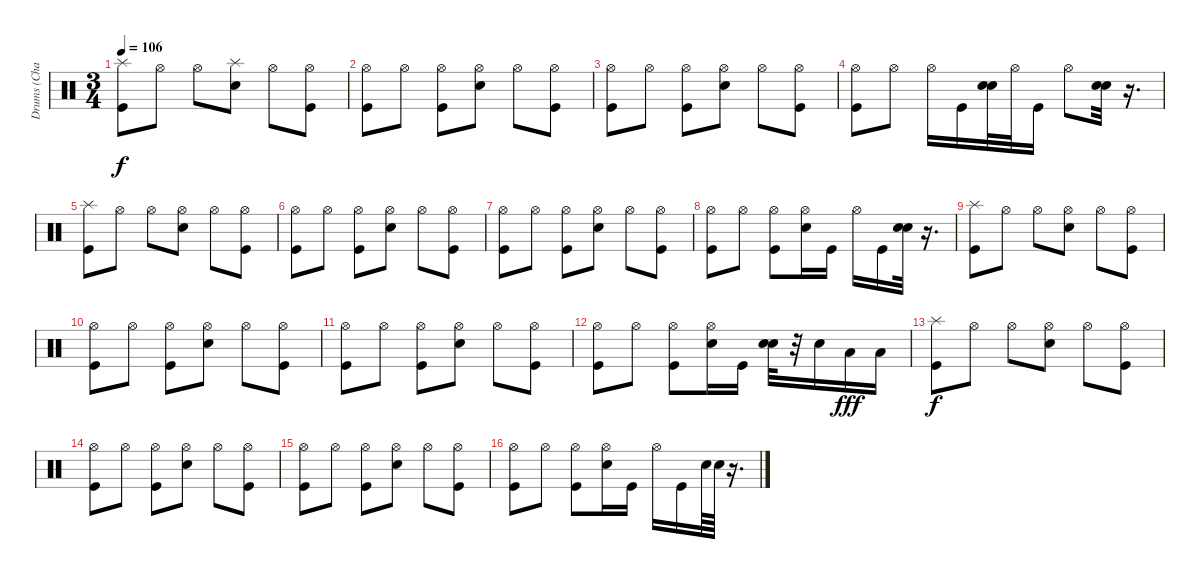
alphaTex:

\track ("Drums (Chad?)" "Drums (Cha") {instrument percussion}
\staff {score}
\articulation defaults
\ts (3 4)
\tempo 106
\clef neutral
\ks c
("Splash (hit)" "Kick (hit)").8{dy f} "Hi-Hat (open)".8 "Hi-Hat (open)".8 ("Splash (hit)" "Snare (hit) 2").8 "Hi-Hat (open)".8 ("Hi-Hat (open)" "Kick (hit)").8 |
("Hi-Hat (open)" "Kick (hit)").8 "Hi-Hat (open)".8 ("Hi-Hat (open)" "Kick (hit)").8 ("Hi-Hat (open)" "Snare (hit) 2").8 "Hi-Hat (open)".8 ("Hi-Hat (open)" "Kick (hit)").8 |
("Hi-Hat (open)" "Kick (hit)").8 "Hi-Hat (open)".8 ("Hi-Hat (open)" "Kick (hit)").8 ("Hi-Hat (open)" "Snare (hit) 2").8 "Hi-Hat (open)".8 ("Hi-Hat (open)" "Kick (hit)").8 |
("Hi-Hat (open)" "Kick (hit)").8 "Hi-Hat (open)".8 "Hi-Hat (open)".16 "Kick (hit)".16 ("Snare (hit) 2" "Snare (hit) 2").32 "Hi-Hat (open)".32 "Kick (hit)".16 "Hi-Hat (open)".8 ("Snare (hit) 2" "Snare (hit) 2").32 r.16{d} |
("Splash (hit)" "Kick (hit)").8 "Hi-Hat (open)".8 "Hi-Hat (open)".8 ("Hi-Hat (open)" "Snare (hit) 2").8 "Hi-Hat (open)".8 ("Hi-Hat (open)" "Kick (hit)").8 |
("Hi-Hat (open)" "Kick (hit)").8 "Hi-Hat (open)".8 ("Hi-Hat (open)" "Kick (hit)").8 ("Hi-Hat (open)" "Snare (hit) 2").8 "Hi-Hat (open)".8 ("Hi-Hat (open)" "Kick (hit)").8 |
("Hi-Hat (open)" "Kick (hit)").8 "Hi-Hat (open)".8 ("Hi-Hat (open)" "Kick (hit)").8 ("Hi-Hat (open)" "Snare (hit) 2").8 "Hi-Hat (open)".8 ("Hi-Hat (open)" "Kick (hit)").8 |
("Hi-Hat (open)" "Kick (hit)").8 "Hi-Hat (open)".8 ("Hi-Hat (open)" "Kick (hit)").8 ("Hi-Hat (open)" "Snare (hit) 2").16 "Kick (hit)".16 "Hi-Hat (open)".16 "Kick (hit)".16 ("Snare (hit) 2" "Snare (hit) 2").32 r.16{d} |
("Splash (hit)" "Kick (hit)").8 "Hi-Hat (open)".8 "Hi-Hat (open)".8 ("Hi-Hat (open)" "Snare (hit) 2").8 "Hi-Hat (open)".8 ("Hi-Hat (open)" "Kick (hit)").8 |
("Hi-Hat (open)" "Kick (hit)").8 "Hi-Hat (open)".8 ("Hi-Hat (open)" "Kick (hit)").8 ("Hi-Hat (open)" "Snare (hit) 2").8 "Hi-Hat (open)".8 ("Hi-Hat (open)" "Kick (hit)").8 |
("Hi-Hat (open)" "Kick (hit)").8 "Hi-Hat (open)".8 ("Hi-Hat (open)" "Kick (hit)").8 ("Hi-Hat (open)" "Snare (hit) 2").8 "Hi-Hat (open)".8 ("Hi-Hat (open)" "Kick (hit)").8 |
("Hi-Hat (open)" "Kick (hit)").8 "Hi-Hat (open)".8 ("Hi-Hat (open)" "Kick (hit)").8 ("Hi-Hat (open)" "Snare (hit) 2").16 "Kick (hit)".16 ("Snare (hit) 2" "Snare (hit) 2").32 r.32 "Snare (hit) 2".16 "Low Tom (hit)".16{dy fff} "Low Tom (hit)".16 |
("Splash (hit)" "Kick (hit)").8{dy f} "Hi-Hat (open)".8 "Hi-Hat (open)".8 ("Hi-Hat (open)" "Snare (hit) 2").8 "Hi-Hat (open)".8 ("Hi-Hat (open)" "Kick (hit)").8 |
("Hi-Hat (open)" "Kick (hit)").8 "Hi-Hat (open)".8 ("Hi-Hat (open)" "Kick (hit)").8 ("Hi-Hat (open)" "Snare (hit) 2").8 "Hi-Hat (open)".8 ("Hi-Hat (open)" "Kick (hit)").8 |
("Hi-Hat (open)" "Kick (hit)").8 "Hi-Hat (open)".8 ("Hi-Hat (open)" "Kick (hit)").8 ("Hi-Hat (open)" "Snare (hit) 2").8 "Hi-Hat (open)".8 ("Hi-Hat (open)" "Kick (hit)").8 |
("Hi-Hat (open)" "Kick (hit)").8 "Hi-Hat (open)".8 ("Hi-Hat (open)" "Kick (hit)").8 ("Hi-Hat (open)" "Snare (hit) 2").16 "Kick (hit)".16 "Hi-Hat (open)".16 "Kick (hit)".16 "Snare (hit) 2".64 "Snare (hit) 2".64 r.16{d}
